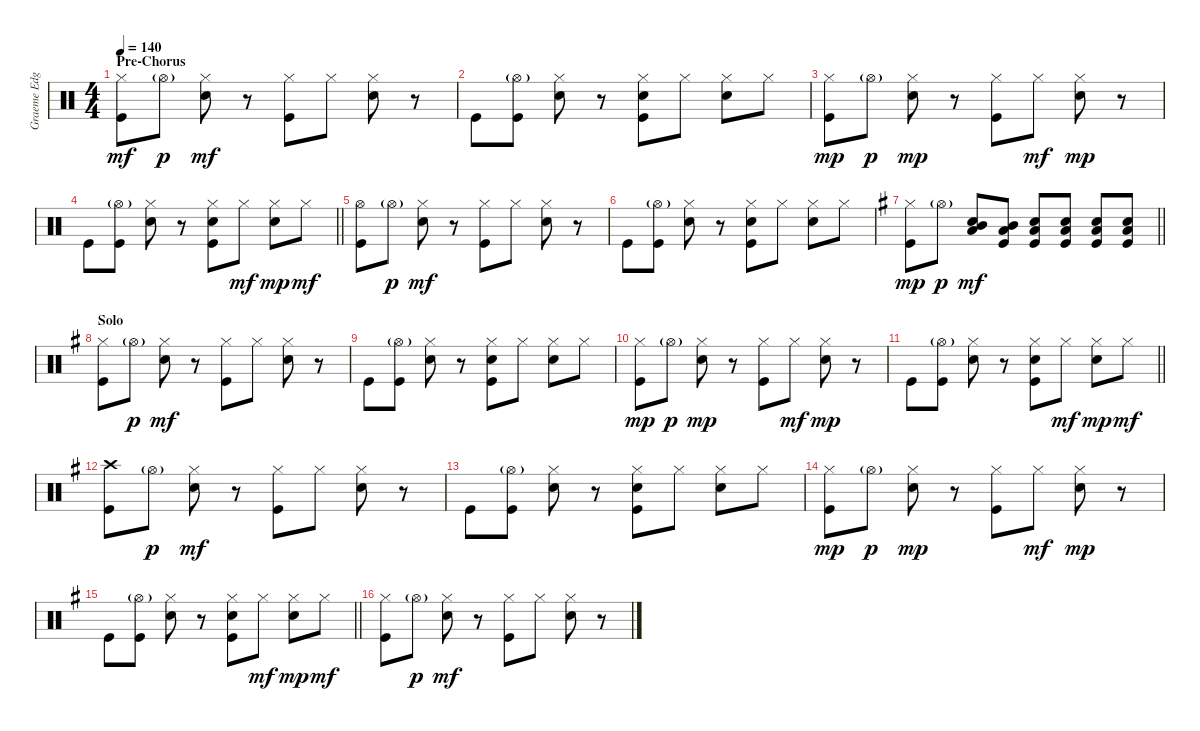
\track ("Graeme Edge" "Graeme Edg") {instrument percussion}
\staff {score}
\articulation defaults
\ts (4 4)
\section ("" "Pre-Chorus")
\tempo 140
\clef neutral
\ks c
("Hi-Hat (closed)" "Kick (hit)").8{dy mf} "Hi-Hat (open)"{g}.8{dy p} ("Hi-Hat (closed)" "Snare (hit) 2").8{dy mf} r.8 ("Hi-Hat (closed)" "Kick (hit)").8 "Hi-Hat (closed)".8 ("Hi-Hat (closed)" "Snare (hit) 2").8 r.8 |
"Kick (hit)".8 ("Hi-Hat (open)"{g} "Kick (hit)").8 ("Hi-Hat (closed)" "Snare (hit) 2").8 r.8 ("Hi-Hat (closed)" "Hand Clap (hit)" "Kick (hit)").8 "Hi-Hat (closed)".8 ("Hi-Hat (closed)" "Snare (hit) 2").8 "Hi-Hat (closed)".8 |
("Hi-Hat (closed)" "Kick (hit)").8{dy mp} "Hi-Hat (open)"{g}.8{dy p} ("Hi-Hat (closed)" "Snare (hit) 2").8{dy mp} r.8 ("Hi-Hat (closed)" "Kick (hit)").8 "Hi-Hat (closed)".8{dy mf} ("Hi-Hat (closed)" "Snare (hit) 2").8{dy mp} r.8 |
\barLineRight lightlight "Kick (hit)".8
("Hi-Hat (open)"{g} "Kick (hit)").8 ("Hi-Hat (closed)" "Snare (hit) 2").8 r.8 ("Hi-Hat (closed)" "Hand Clap (hit)" "Kick (hit)").8 "Hi-Hat (closed)".8{dy mf} ("Hi-Hat (closed)" "Snare (hit) 2").8{dy mp} "Hi-Hat (closed)".8{dy mf} |
("Hi-Hat (open)" "Kick (hit)").8 "Hi-Hat (open)"{g}.8{dy p} ("Hi-Hat (closed)" "Snare (hit) 2").8{dy mf} r.8 ("Hi-Hat (closed)" "Kick (hit)").8 "Hi-Hat (closed)".8 ("Hi-Hat (closed)" "Snare (hit) 2").8 r.8 |
"Kick (hit)".8 ("Hi-Hat (open)"{g} "Kick (hit)").8 ("Hi-Hat (closed)" "Snare (hit) 2").8 r.8 ("Hi-Hat (closed)" "Hand Clap (hit)" "Kick (hit)").8 "Hi-Hat (closed)".8 ("Hi-Hat (closed)" "Snare (hit) 2").8 "Hi-Hat (closed)".8 |
\barLineRight lightlight
\ks g
("Hi-Hat (closed)" "Kick (hit)").8{dy mp} "Hi-Hat (open)"{g}.8{dy p} ("Mid Tom (hit)" "Low Tom (hit)" "Snare (hit) 2").8{dy mf} ("Mid Tom (hit)" "Low Tom (hit)" "Kick (hit)").8 ("Low Tom (hit)" "Snare (hit) 2" "Kick (hit)").8 ("Low Tom (hit)" "Snare (hit) 2" "Kick (hit)").8 ("Low Tom (hit)" "Snare (hit) 2" "Kick (hit)").8 ("Low Tom (hit)" "Snare (hit) 2" "Kick (hit)").8 |
\section ("" "Solo")
("Hi-Hat (closed)" "Kick (hit)").8 "Hi-Hat (open)"{g}.8{dy p} ("Hi-Hat (closed)" "Snare (hit) 2").8{dy mf} r.8 ("Hi-Hat (closed)" "Kick (hit)").8 "Hi-Hat (closed)".8 ("Hi-Hat (closed)" "Snare (hit) 2").8 r.8 |
"Kick (hit)".8 ("Hi-Hat (open)"{g} "Kick (hit)").8 ("Hi-Hat (closed)" "Snare (hit) 2").8 r.8 ("Hi-Hat (closed)" "Hand Clap (hit)" "Kick (hit)").8 "Hi-Hat (closed)".8 ("Hi-Hat (closed)" "Snare (hit) 2").8 "Hi-Hat (closed)".8 |
("Hi-Hat (closed)" "Kick (hit)").8{dy mp} "Hi-Hat (open)"{g}.8{dy p} ("Hi-Hat (closed)" "Snare (hit) 2").8{dy mp} r.8 ("Hi-Hat (closed)" "Kick (hit)").8 "Hi-Hat (closed)".8{dy mf} ("Hi-Hat (closed)" "Snare (hit) 2").8{dy mp} r.8 |
\barLineRight lightlight "Kick (hit)".8
("Hi-Hat (open)"{g} "Kick (hit)").8 ("Hi-Hat (closed)" "Snare (hit) 2").8 r.8 ("Hi-Hat (closed)" "Hand Clap (hit)" "Kick (hit)").8 "Hi-Hat (closed)".8{dy mf} ("Hi-Hat (closed)" "Snare (hit) 2").8{dy mp} "Hi-Hat (closed)".8{dy mf} |
\section ("" "")
("Crash high (hit)" "Kick (hit)").8 "Hi-Hat (open)"{g}.8{dy p} ("Hi-Hat (closed)" "Snare (hit) 2").8{dy mf} r.8 ("Hi-Hat (closed)" "Kick (hit)").8 "Hi-Hat (closed)".8 ("Hi-Hat (closed)" "Snare (hit) 2").8 r.8 |
"Kick (hit)".8 ("Hi-Hat (open)"{g} "Kick (hit)").8 ("Hi-Hat (closed)" "Snare (hit) 2").8 r.8 ("Hi-Hat (closed)" "Hand Clap (hit)" "Kick (hit)").8 "Hi-Hat (closed)".8 ("Hi-Hat (closed)" "Snare (hit) 2").8 "Hi-Hat (closed)".8 |
("Hi-Hat (closed)" "Kick (hit)").8{dy mp} "Hi-Hat (open)"{g}.8{dy p} ("Hi-Hat (closed)" "Snare (hit) 2").8{dy mp} r.8 ("Hi-Hat (closed)" "Kick (hit)").8 "Hi-Hat (closed)".8{dy mf} ("Hi-Hat (closed)" "Snare (hit) 2").8{dy mp} r.8 |
\barLineRight lightlight "Kick (hit)".8
("Hi-Hat (open)"{g} "Kick (hit)").8 ("Hi-Hat (closed)" "Snare (hit) 2").8 r.8 ("Hi-Hat (closed)" "Hand Clap (hit)" "Kick (hit)").8 "Hi-Hat (closed)".8{dy mf} ("Hi-Hat (closed)" "Snare (hit) 2").8{dy mp} "Hi-Hat (closed)".8{dy mf} |
\section ("" "")
("Hi-Hat (closed)" "Kick (hit)").8 "Hi-Hat (open)"{g}.8{dy p} ("Hi-Hat (closed)" "Snare (hit) 2").8{dy mf} r.8 ("Hi-Hat (closed)" "Kick (hit)").8 "Hi-Hat (closed)".8 ("Hi-Hat (closed)" "Snare (hit) 2").8 r.8
